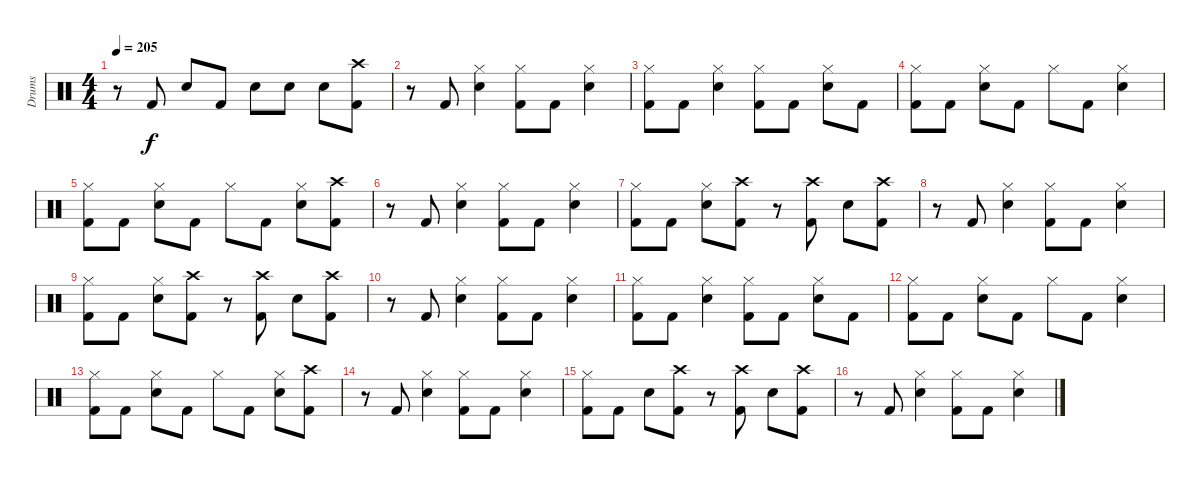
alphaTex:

\track ("Drums" "Drums") {instrument percussion}
\staff {score}
\articulation defaults
\ts (4 4)
\tempo 205
\clef neutral
\ks c
r.8{dy f} "Kick (hit) 2".8 "Snare (hit) 2".8 "Kick (hit) 2".8 "Snare (hit) 2".8 "Snare (hit) 2".8 "Snare (hit) 2".8 ("Kick (hit) 2" "Crash high (hit)").8 |
r.8 "Kick (hit) 2".8 ("Snare (hit) 2" "Hi-Hat (closed)").4 ("Kick (hit) 2" "Hi-Hat (closed)").8 "Kick (hit) 2".8 ("Snare (hit) 2" "Hi-Hat (closed)").4 |
("Hi-Hat (closed)" "Kick (hit) 2").8 "Kick (hit) 2".8 ("Hi-Hat (closed)" "Snare (hit) 2").4 ("Hi-Hat (closed)" "Kick (hit) 2").8 "Kick (hit) 2".8 ("Hi-Hat (closed)" "Snare (hit) 2").8 "Kick (hit) 2".8 |
("Kick (hit) 2" "Hi-Hat (closed)").8 "Kick (hit) 2".8 ("Hi-Hat (closed)" "Snare (hit) 2").8 "Kick (hit) 2".8 "Hi-Hat (closed)".8 "Kick (hit) 2".8 ("Hi-Hat (closed)" "Snare (hit) 2").4 |
("Hi-Hat (closed)" "Kick (hit) 2").8 "Kick (hit) 2".8 ("Hi-Hat (closed)" "Snare (hit) 2").8 "Kick (hit) 2".8 "Hi-Hat (closed)".8 "Kick (hit) 2".8 ("Snare (hit) 2" "Hi-Hat (closed)").8 ("Crash high (hit)" "Kick (hit) 2").8 |
r.8 "Kick (hit) 2".8 ("Snare (hit) 2" "Hi-Hat (closed)").4 ("Kick (hit) 2" "Hi-Hat (closed)").8 "Kick (hit) 2".8 ("Hi-Hat (closed)" "Snare (hit) 2").4 |
("Hi-Hat (closed)" "Kick (hit) 2").8 "Kick (hit) 2".8 ("Snare (hit) 2" "Hi-Hat (closed)").8 ("Kick (hit) 2" "Crash high (hit)").8 r.8 ("Crash high (hit)" "Kick (hit) 2").8 "Snare (hit) 2".8 ("Crash high (hit)" "Kick (hit) 2").8 |
r.8 "Kick (hit) 2".8 ("Snare (hit) 2" "Hi-Hat (closed)").4 ("Kick (hit) 2" "Hi-Hat (closed)").8 "Kick (hit) 2".8 ("Hi-Hat (closed)" "Snare (hit) 2").4 |
("Hi-Hat (closed)" "Kick (hit) 2").8 "Kick (hit) 2".8 ("Snare (hit) 2" "Hi-Hat (closed)").8 ("Kick (hit) 2" "Crash high (hit)").8 r.8 ("Crash high (hit)" "Kick (hit) 2").8 "Snare (hit) 2".8 ("Crash high (hit)" "Kick (hit) 2").8 |
r.8 "Kick (hit) 2".8 ("Snare (hit) 2" "Hi-Hat (closed)").4 ("Hi-Hat (closed)" "Kick (hit) 2").8 "Kick (hit) 2".8 ("Hi-Hat (closed)" "Snare (hit) 2").4 |
("Kick (hit) 2" "Hi-Hat (closed)").8 "Kick (hit) 2".8 ("Hi-Hat (closed)" "Snare (hit) 2").4 ("Kick (hit) 2" "Hi-Hat (closed)").8 "Kick (hit) 2".8 ("Hi-Hat (closed)" "Snare (hit) 2").8 "Kick (hit) 2".8 |
("Hi-Hat (closed)" "Kick (hit) 2").8 "Kick (hit) 2".8 ("Hi-Hat (closed)" "Snare (hit) 2").8 "Kick (hit) 2".8 "Hi-Hat (closed)".8 "Kick (hit) 2".8 ("Hi-Hat (closed)" "Snare (hit) 2").4 |
("Kick (hit) 2" "Hi-Hat (closed)").8 "Kick (hit) 2".8 ("Hi-Hat (closed)" "Snare (hit) 2").8 "Kick (hit) 2".8 "Hi-Hat (closed)".8 "Kick (hit) 2".8 ("Hi-Hat (closed)" "Snare (hit) 2").8 ("Kick (hit) 2" "Crash high (hit)").8 |
r.8 "Kick (hit) 2".8 ("Snare (hit) 2" "Hi-Hat (closed)").4 ("Hi-Hat (closed)" "Kick (hit) 2").8 "Kick (hit) 2".8 ("Hi-Hat (closed)" "Snare (hit) 2").4 |
("Kick (hit) 2" "Hi-Hat (closed)").8 "Kick (hit) 2".8 "Snare (hit) 2".8 ("Kick (hit) 2" "Crash high (hit)").8 r.8 ("Kick (hit) 2" "Crash high (hit)").8 "Snare (hit) 2".8 ("Kick (hit) 2" "Crash high (hit)").8 |
r.8 "Kick (hit) 2".8 ("Snare (hit) 2" "Hi-Hat (closed)").4 ("Hi-Hat (closed)" "Kick (hit) 2").8 "Kick (hit) 2".8 ("Hi-Hat (closed)" "Snare (hit) 2").4
